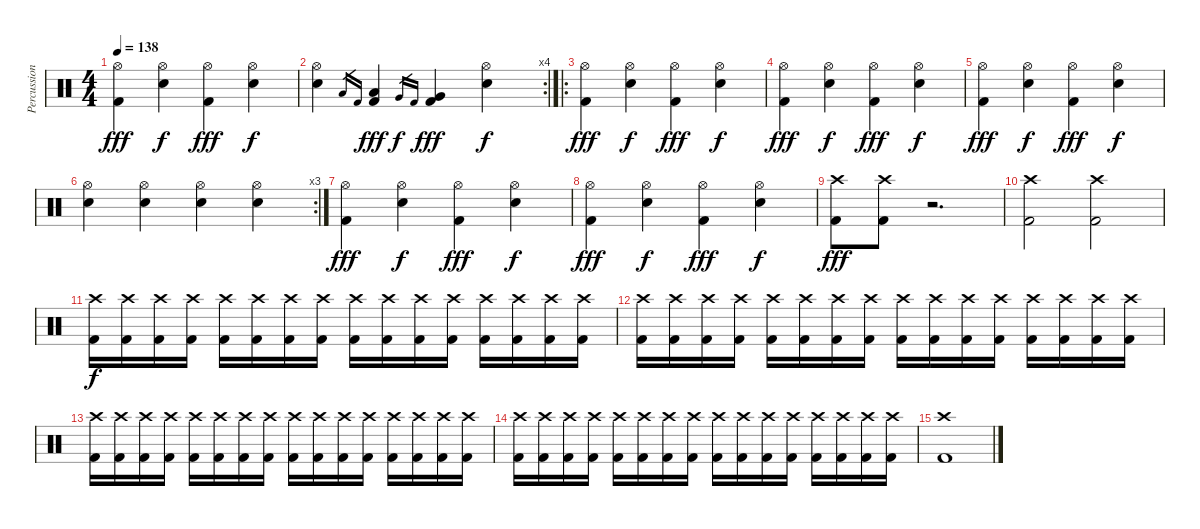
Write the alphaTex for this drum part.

\track ("Percussion" "Percussion") {instrument percussion}
\staff {score}
\articulation defaults
\ts (4 4)
\tempo 138
\clef neutral
\ks c
("Hi-Hat (open)" "Kick (hit) 2").4{dy fff} ("Hi-Hat (open)" "Snare (hit) 2").4{dy f} ("Hi-Hat (open)" "Kick (hit) 2").4{dy fff} ("Hi-Hat (open)" "Snare (hit) 2").4{dy f} |
\rc 4
("Hi-Hat (open)" "Snare (hit) 2").4 "Low Tom (hit)".16{gr} "Kick (hit) 2".16{gr} ("Low Tom (hit)" "Kick (hit) 2").4{dy fff} "Very Low Tom (hit)".16{gr dy f} "Kick (hit) 2".16{gr} ("Very Low Tom (hit)" "Kick (hit) 2").4{dy fff} ("Hi-Hat (open)" "Snare (hit) 2").4{dy f} |
\ro
("Hi-Hat (open)" "Kick (hit) 2").4{dy fff} ("Hi-Hat (open)" "Snare (hit) 2").4{dy f} ("Hi-Hat (open)" "Kick (hit) 2").4{dy fff} ("Hi-Hat (open)" "Snare (hit) 2").4{dy f} |
("Hi-Hat (open)" "Kick (hit) 2").4{dy fff} ("Hi-Hat (open)" "Snare (hit) 2").4{dy f} ("Hi-Hat (open)" "Kick (hit) 2").4{dy fff} ("Hi-Hat (open)" "Snare (hit) 2").4{dy f} |
("Hi-Hat (open)" "Kick (hit) 2").4{dy fff} ("Hi-Hat (open)" "Snare (hit) 2").4{dy f} ("Hi-Hat (open)" "Kick (hit) 2").4{dy fff} ("Hi-Hat (open)" "Snare (hit) 2").4{dy f} |
\rc 3
("Hi-Hat (open)" "Snare (hit) 2").4 ("Hi-Hat (open)" "Snare (hit) 2").4 ("Hi-Hat (open)" "Snare (hit) 2").4 ("Hi-Hat (open)" "Snare (hit) 2").4 |
("Hi-Hat (open)" "Kick (hit) 2").4{dy fff} ("Hi-Hat (open)" "Snare (hit) 2").4{dy f} ("Hi-Hat (open)" "Kick (hit) 2").4{dy fff} ("Hi-Hat (open)" "Snare (hit) 2").4{dy f} |
("Hi-Hat (open)" "Kick (hit) 2").4{dy fff} ("Hi-Hat (open)" "Snare (hit) 2").4{dy f} ("Hi-Hat (open)" "Kick (hit) 2").4{dy fff} ("Hi-Hat (open)" "Snare (hit) 2").4{dy f} |
("Crash high (hit)" "Kick (hit) 2").8{dy fff} ("Crash high (hit)" "Kick (hit) 2").8 r.2{d} |
("Crash high (hit)" "Kick (hit) 2").2 ("Crash high (hit)" "Kick (hit) 2").2 |
("Crash high (hit)" "Kick (hit) 2").16{dy f} ("Crash high (hit)" "Kick (hit) 2").16 ("Crash high (hit)" "Kick (hit) 2").16 ("Crash high (hit)" "Kick (hit) 2").16 ("Crash high (hit)" "Kick (hit) 2").16 ("Crash high (hit)" "Kick (hit) 2").16 ("Crash high (hit)" "Kick (hit) 2").16 ("Crash high (hit)" "Kick (hit) 2").16 ("Crash high (hit)" "Kick (hit) 2").16 ("Crash high (hit)" "Kick (hit) 2").16 ("Crash high (hit)" "Kick (hit) 2").16 ("Crash high (hit)" "Kick (hit) 2").16 ("Crash high (hit)" "Kick (hit) 2").16 ("Crash high (hit)" "Kick (hit) 2").16 ("Crash high (hit)" "Kick (hit) 2").16 ("Crash high (hit)" "Kick (hit) 2").16 |
("Crash high (hit)" "Kick (hit) 2").16 ("Crash high (hit)" "Kick (hit) 2").16 ("Crash high (hit)" "Kick (hit) 2").16 ("Crash high (hit)" "Kick (hit) 2").16 ("Crash high (hit)" "Kick (hit) 2").16 ("Crash high (hit)" "Kick (hit) 2").16 ("Crash high (hit)" "Kick (hit) 2").16 ("Crash high (hit)" "Kick (hit) 2").16 ("Crash high (hit)" "Kick (hit) 2").16 ("Crash high (hit)" "Kick (hit) 2").16 ("Crash high (hit)" "Kick (hit) 2").16 ("Crash high (hit)" "Kick (hit) 2").16 ("Crash high (hit)" "Kick (hit) 2").16 ("Crash high (hit)" "Kick (hit) 2").16 ("Crash high (hit)" "Kick (hit) 2").16 ("Crash high (hit)" "Kick (hit) 2").16 |
("Crash high (hit)" "Kick (hit) 2").16 ("Crash high (hit)" "Kick (hit) 2").16 ("Crash high (hit)" "Kick (hit) 2").16 ("Crash high (hit)" "Kick (hit) 2").16 ("Crash high (hit)" "Kick (hit) 2").16 ("Crash high (hit)" "Kick (hit) 2").16 ("Crash high (hit)" "Kick (hit) 2").16 ("Crash high (hit)" "Kick (hit) 2").16 ("Crash high (hit)" "Kick (hit) 2").16 ("Crash high (hit)" "Kick (hit) 2").16 ("Crash high (hit)" "Kick (hit) 2").16 ("Crash high (hit)" "Kick (hit) 2").16 ("Crash high (hit)" "Kick (hit) 2").16 ("Crash high (hit)" "Kick (hit) 2").16 ("Crash high (hit)" "Kick (hit) 2").16 ("Crash high (hit)" "Kick (hit) 2").16 |
("Crash high (hit)" "Kick (hit) 2").16 ("Crash high (hit)" "Kick (hit) 2").16 ("Crash high (hit)" "Kick (hit) 2").16 ("Crash high (hit)" "Kick (hit) 2").16 ("Crash high (hit)" "Kick (hit) 2").16 ("Crash high (hit)" "Kick (hit) 2").16 ("Crash high (hit)" "Kick (hit) 2").16 ("Crash high (hit)" "Kick (hit) 2").16 ("Crash high (hit)" "Kick (hit) 2").16 ("Crash high (hit)" "Kick (hit) 2").16 ("Crash high (hit)" "Kick (hit) 2").16 ("Crash high (hit)" "Kick (hit) 2").16 ("Crash high (hit)" "Kick (hit) 2").16 ("Crash high (hit)" "Kick (hit) 2").16 ("Crash high (hit)" "Kick (hit) 2").16 ("Crash high (hit)" "Kick (hit) 2").16 |
("Crash high (hit)" "Kick (hit) 2").1
